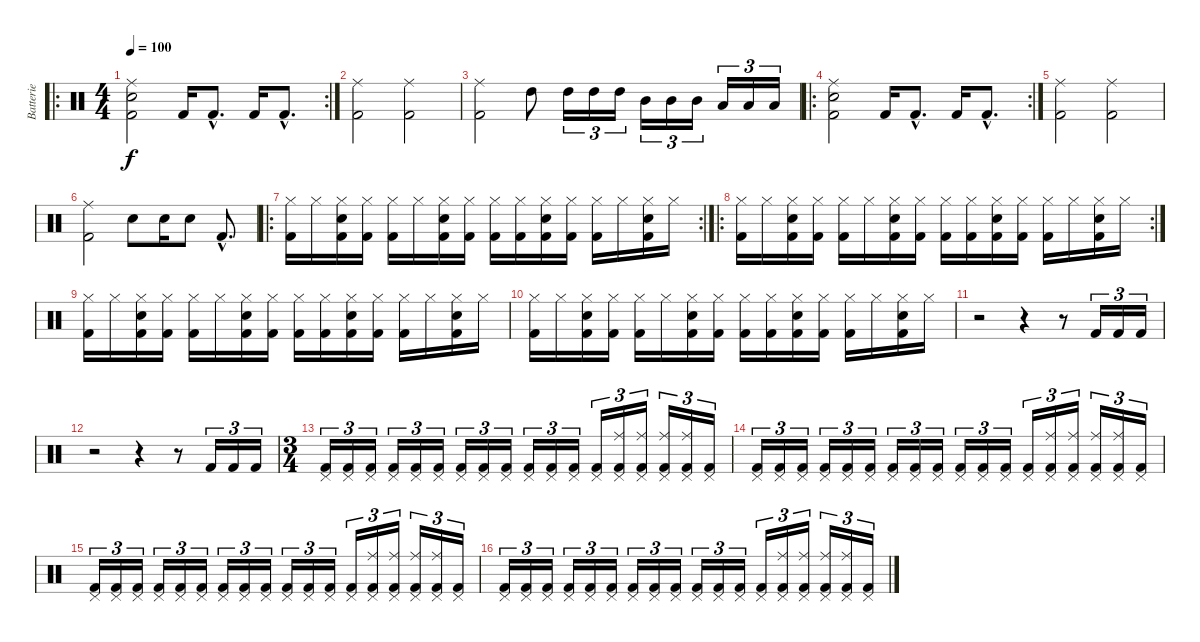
\track ("Batterie" "Batterie") {instrument percussion}
\staff {score}
\articulation defaults
\ro
\rc 2
\ts (4 4)
\tempo 100
\clef neutral
\ks c
("Ride (middle)" "Kick (hit) 2" "Electric Snare (hit)").2{dy f} "Kick (hit) 2".16 "Kick (hit) 2"{hac}.8{d} "Kick (hit) 2".16 "Kick (hit) 2"{hac}.8{d} |
("Ride (middle)" "Kick (hit) 2").2 ("Ride (middle)" "Kick (hit) 2").2 |
("Ride (middle)" "Kick (hit) 2").2 "High Tom (hit)".8 "High Tom (hit)".16{tu (3 2)} "High Tom (hit)".16{tu (3 2)} "High Tom (hit)".16{tu (3 2)} "Mid Tom (hit)".16{tu (3 2)} "Mid Tom (hit)".16{tu (3 2)} "Mid Tom (hit)".16{tu (3 2)} "Low Tom (hit)".16{tu (3 2)} "Low Tom (hit)".16{tu (3 2)} "Low Tom (hit)".16{tu (3 2)} |
\ro
\rc 2
("Ride (middle)" "Kick (hit) 2" "Electric Snare (hit)").2 "Kick (hit) 2".16 "Kick (hit) 2"{hac}.8{d} "Kick (hit) 2".16 "Kick (hit) 2"{hac}.8{d} |
("Ride (middle)" "Kick (hit) 2").2 ("Ride (middle)" "Kick (hit) 2").2 |
("Ride (middle)" "Kick (hit) 2").2 "Electric Snare (hit)".8 "Electric Snare (hit)".16 "Electric Snare (hit)".8 "Kick (hit) 2"{hac}.8{d} |
\ro
\rc 2
("Hi-Hat (closed)" "Kick (hit) 2").16 "Hi-Hat (closed)".16 ("Hi-Hat (closed)" "Kick (hit) 2" "Electric Snare (hit)").16 ("Hi-Hat (closed)" "Kick (hit) 2").16 ("Hi-Hat (closed)" "Kick (hit) 2").16 "Hi-Hat (closed)".16 ("Hi-Hat (closed)" "Kick (hit) 2" "Electric Snare (hit)").16 ("Hi-Hat (closed)" "Kick (hit) 2").16 ("Hi-Hat (closed)" "Kick (hit) 2").16 ("Hi-Hat (closed)" "Kick (hit) 2").16 ("Hi-Hat (closed)" "Kick (hit) 2" "Electric Snare (hit)").16 ("Hi-Hat (closed)" "Kick (hit) 2").16 ("Hi-Hat (closed)" "Kick (hit) 2").16 "Hi-Hat (closed)".16 ("Hi-Hat (closed)" "Kick (hit) 2" "Electric Snare (hit)").16 "Hi-Hat (closed)".16 |
\ro
\rc 2
("Hi-Hat (closed)" "Kick (hit) 2").16 "Hi-Hat (closed)".16 ("Hi-Hat (closed)" "Kick (hit) 2" "Electric Snare (hit)").16 ("Hi-Hat (closed)" "Kick (hit) 2").16 ("Hi-Hat (closed)" "Kick (hit) 2").16 "Hi-Hat (closed)".16 ("Hi-Hat (closed)" "Kick (hit) 2" "Electric Snare (hit)").16 ("Hi-Hat (closed)" "Kick (hit) 2").16 ("Hi-Hat (closed)" "Kick (hit) 2").16 ("Hi-Hat (closed)" "Kick (hit) 2").16 ("Hi-Hat (closed)" "Kick (hit) 2" "Electric Snare (hit)").16 ("Hi-Hat (closed)" "Kick (hit) 2").16 ("Hi-Hat (closed)" "Kick (hit) 2").16 "Hi-Hat (closed)".16 ("Hi-Hat (closed)" "Kick (hit) 2" "Electric Snare (hit)").16 "Hi-Hat (closed)".16 |
("Hi-Hat (closed)" "Kick (hit) 2").16 "Hi-Hat (closed)".16 ("Hi-Hat (closed)" "Kick (hit) 2" "Electric Snare (hit)").16 ("Hi-Hat (closed)" "Kick (hit) 2").16 ("Hi-Hat (closed)" "Kick (hit) 2").16 "Hi-Hat (closed)".16 ("Hi-Hat (closed)" "Kick (hit) 2" "Electric Snare (hit)").16 ("Hi-Hat (closed)" "Kick (hit) 2").16 ("Hi-Hat (closed)" "Kick (hit) 2").16 ("Hi-Hat (closed)" "Kick (hit) 2").16 ("Hi-Hat (closed)" "Kick (hit) 2" "Electric Snare (hit)").16 ("Hi-Hat (closed)" "Kick (hit) 2").16 ("Hi-Hat (closed)" "Kick (hit) 2").16 "Hi-Hat (closed)".16 ("Hi-Hat (closed)" "Kick (hit) 2" "Electric Snare (hit)").16 "Hi-Hat (closed)".16 |
("Hi-Hat (closed)" "Kick (hit) 2").16 "Hi-Hat (closed)".16 ("Hi-Hat (closed)" "Kick (hit) 2" "Electric Snare (hit)").16 ("Hi-Hat (closed)" "Kick (hit) 2").16 ("Hi-Hat (closed)" "Kick (hit) 2").16 "Hi-Hat (closed)".16 ("Hi-Hat (closed)" "Kick (hit) 2" "Electric Snare (hit)").16 ("Hi-Hat (closed)" "Kick (hit) 2").16 ("Hi-Hat (closed)" "Kick (hit) 2").16 ("Hi-Hat (closed)" "Kick (hit) 2").16 ("Hi-Hat (closed)" "Kick (hit) 2" "Electric Snare (hit)").16 ("Hi-Hat (closed)" "Kick (hit) 2").16 ("Hi-Hat (closed)" "Kick (hit) 2").16 "Hi-Hat (closed)".16 ("Hi-Hat (closed)" "Kick (hit) 2" "Electric Snare (hit)").16 "Hi-Hat (closed)".16 |
r.2 r.4 r.8 "Kick (hit) 2".16{tu (3 2)} "Kick (hit) 2".16{tu (3 2)} "Kick (hit) 2".16{tu (3 2)} |
r.2 r.4 r.8 "Kick (hit) 2".16{tu (3 2)} "Kick (hit) 2".16{tu (3 2)} "Kick (hit) 2".16{tu (3 2)} |
\ts (3 4)
("Pedal Hi-Hat (hit)" "Kick (hit) 2").16{tu (3 2)} ("Pedal Hi-Hat (hit)" "Kick (hit) 2").16{tu (3 2)} ("Pedal Hi-Hat (hit)" "Kick (hit) 2").16{tu (3 2)} ("Pedal Hi-Hat (hit)" "Kick (hit) 2").16{tu (3 2)} ("Pedal Hi-Hat (hit)" "Kick (hit) 2").16{tu (3 2)} ("Pedal Hi-Hat (hit)" "Kick (hit) 2").16{tu (3 2)} ("Pedal Hi-Hat (hit)" "Kick (hit) 2").16{tu (3 2)} ("Pedal Hi-Hat (hit)" "Kick (hit) 2").16{tu (3 2)} ("Pedal Hi-Hat (hit)" "Kick (hit) 2").16{tu (3 2)} ("Pedal Hi-Hat (hit)" "Kick (hit) 2").16{tu (3 2)} ("Pedal Hi-Hat (hit)" "Kick (hit) 2").16{tu (3 2)} ("Pedal Hi-Hat (hit)" "Kick (hit) 2").16{tu (3 2)} ("Pedal Hi-Hat (hit)" "Kick (hit) 2").16{tu (3 2)} ("Pedal Hi-Hat (hit)" "Kick (hit) 2" "Ride (middle)").16{tu (3 2)} ("Pedal Hi-Hat (hit)" "Kick (hit) 2" "Ride (middle)").16{tu (3 2)} ("Pedal Hi-Hat (hit)" "Kick (hit) 2" "Ride (middle)").16{tu (3 2)} ("Pedal Hi-Hat (hit)" "Kick (hit) 2" "Ride (middle)").16{tu (3 2)} ("Pedal Hi-Hat (hit)" "Kick (hit) 2").16{tu (3 2)} |
("Pedal Hi-Hat (hit)" "Kick (hit) 2").16{tu (3 2)} ("Pedal Hi-Hat (hit)" "Kick (hit) 2").16{tu (3 2)} ("Pedal Hi-Hat (hit)" "Kick (hit) 2").16{tu (3 2)} ("Pedal Hi-Hat (hit)" "Kick (hit) 2").16{tu (3 2)} ("Pedal Hi-Hat (hit)" "Kick (hit) 2").16{tu (3 2)} ("Pedal Hi-Hat (hit)" "Kick (hit) 2").16{tu (3 2)} ("Pedal Hi-Hat (hit)" "Kick (hit) 2").16{tu (3 2)} ("Pedal Hi-Hat (hit)" "Kick (hit) 2").16{tu (3 2)} ("Pedal Hi-Hat (hit)" "Kick (hit) 2").16{tu (3 2)} ("Pedal Hi-Hat (hit)" "Kick (hit) 2").16{tu (3 2)} ("Pedal Hi-Hat (hit)" "Kick (hit) 2").16{tu (3 2)} ("Pedal Hi-Hat (hit)" "Kick (hit) 2").16{tu (3 2)} ("Pedal Hi-Hat (hit)" "Kick (hit) 2").16{tu (3 2)} ("Pedal Hi-Hat (hit)" "Kick (hit) 2" "Ride (middle)").16{tu (3 2)} ("Pedal Hi-Hat (hit)" "Kick (hit) 2" "Ride (middle)").16{tu (3 2)} ("Pedal Hi-Hat (hit)" "Kick (hit) 2" "Ride (middle)").16{tu (3 2)} ("Pedal Hi-Hat (hit)" "Kick (hit) 2" "Ride (middle)").16{tu (3 2)} ("Pedal Hi-Hat (hit)" "Kick (hit) 2").16{tu (3 2)} |
("Pedal Hi-Hat (hit)" "Kick (hit) 2").16{tu (3 2)} ("Pedal Hi-Hat (hit)" "Kick (hit) 2").16{tu (3 2)} ("Pedal Hi-Hat (hit)" "Kick (hit) 2").16{tu (3 2)} ("Pedal Hi-Hat (hit)" "Kick (hit) 2").16{tu (3 2)} ("Pedal Hi-Hat (hit)" "Kick (hit) 2").16{tu (3 2)} ("Pedal Hi-Hat (hit)" "Kick (hit) 2").16{tu (3 2)} ("Pedal Hi-Hat (hit)" "Kick (hit) 2").16{tu (3 2)} ("Pedal Hi-Hat (hit)" "Kick (hit) 2").16{tu (3 2)} ("Pedal Hi-Hat (hit)" "Kick (hit) 2").16{tu (3 2)} ("Pedal Hi-Hat (hit)" "Kick (hit) 2").16{tu (3 2)} ("Pedal Hi-Hat (hit)" "Kick (hit) 2").16{tu (3 2)} ("Pedal Hi-Hat (hit)" "Kick (hit) 2").16{tu (3 2)} ("Pedal Hi-Hat (hit)" "Kick (hit) 2").16{tu (3 2)} ("Pedal Hi-Hat (hit)" "Kick (hit) 2" "Ride (middle)").16{tu (3 2)} ("Pedal Hi-Hat (hit)" "Kick (hit) 2" "Ride (middle)").16{tu (3 2)} ("Pedal Hi-Hat (hit)" "Kick (hit) 2" "Ride (middle)").16{tu (3 2)} ("Pedal Hi-Hat (hit)" "Kick (hit) 2" "Ride (middle)").16{tu (3 2)} ("Pedal Hi-Hat (hit)" "Kick (hit) 2").16{tu (3 2)} |
("Pedal Hi-Hat (hit)" "Kick (hit) 2").16{tu (3 2)} ("Pedal Hi-Hat (hit)" "Kick (hit) 2").16{tu (3 2)} ("Pedal Hi-Hat (hit)" "Kick (hit) 2").16{tu (3 2)} ("Pedal Hi-Hat (hit)" "Kick (hit) 2").16{tu (3 2)} ("Pedal Hi-Hat (hit)" "Kick (hit) 2").16{tu (3 2)} ("Pedal Hi-Hat (hit)" "Kick (hit) 2").16{tu (3 2)} ("Pedal Hi-Hat (hit)" "Kick (hit) 2").16{tu (3 2)} ("Pedal Hi-Hat (hit)" "Kick (hit) 2").16{tu (3 2)} ("Pedal Hi-Hat (hit)" "Kick (hit) 2").16{tu (3 2)} ("Pedal Hi-Hat (hit)" "Kick (hit) 2").16{tu (3 2)} ("Pedal Hi-Hat (hit)" "Kick (hit) 2").16{tu (3 2)} ("Pedal Hi-Hat (hit)" "Kick (hit) 2").16{tu (3 2)} ("Pedal Hi-Hat (hit)" "Kick (hit) 2").16{tu (3 2)} ("Pedal Hi-Hat (hit)" "Kick (hit) 2" "Ride (middle)").16{tu (3 2)} ("Pedal Hi-Hat (hit)" "Kick (hit) 2" "Ride (middle)").16{tu (3 2)} ("Pedal Hi-Hat (hit)" "Kick (hit) 2" "Ride (middle)").16{tu (3 2)} ("Pedal Hi-Hat (hit)" "Kick (hit) 2" "Ride (middle)").16{tu (3 2)} ("Pedal Hi-Hat (hit)" "Kick (hit) 2").16{tu (3 2)}
